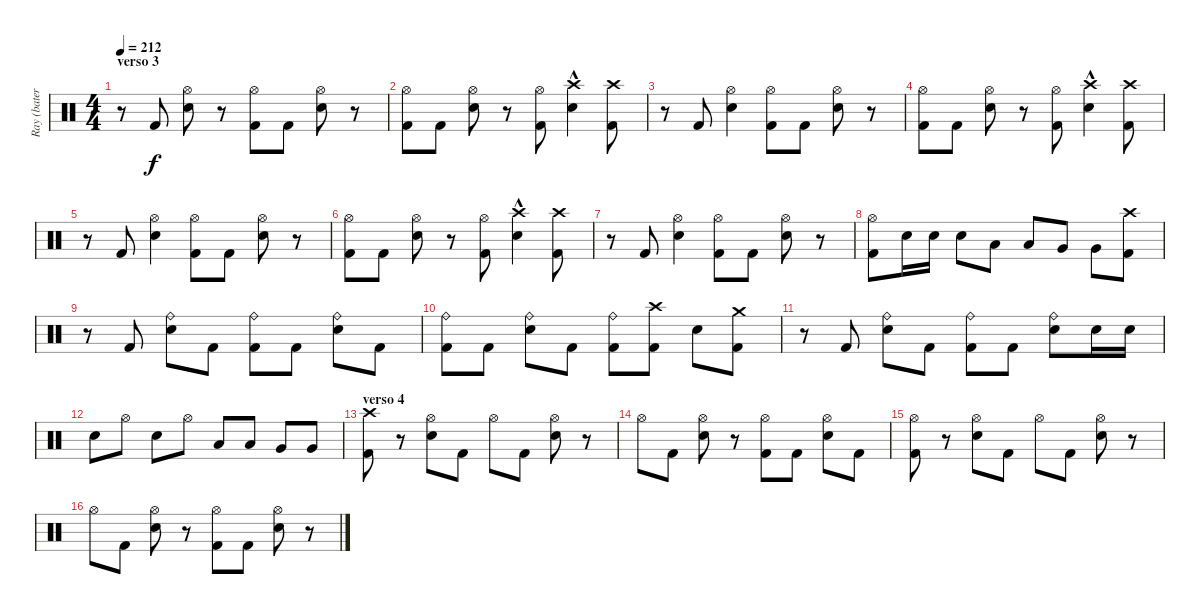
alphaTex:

\track ("Ray (batería)" "Ray (bater") {instrument percussion}
\staff {score}
\articulation defaults
\ts (4 4)
\section ("" "verso 3")
\tempo 212
\clef neutral
\ks c
r.8{dy f} "Kick (hit) 2".8 ("Hi-Hat (open)" "Snare (hit) 2").8 r.8 ("Hi-Hat (open)" "Kick (hit) 2").8 "Kick (hit) 2".8 ("Hi-Hat (open)" "Snare (hit) 2").8 r.8 |
("Hi-Hat (open)" "Kick (hit) 2").8 "Kick (hit) 2".8 ("Hi-Hat (open)" "Snare (hit) 2").8 r.8 ("Hi-Hat (open)" "Kick (hit) 2").8 ("Crash high (hit)" "Snare (hit) 2"{hac}).4 ("Crash high (hit)" "Kick (hit) 2").8 |
r.8 "Kick (hit) 2".8 ("Hi-Hat (open)" "Snare (hit) 2").4 ("Hi-Hat (open)" "Kick (hit) 2").8 "Kick (hit) 2".8 ("Hi-Hat (open)" "Snare (hit) 2").8 r.8 |
("Hi-Hat (open)" "Kick (hit) 2").8 "Kick (hit) 2".8 ("Hi-Hat (open)" "Snare (hit) 2").8 r.8 ("Hi-Hat (open)" "Kick (hit) 2").8 ("Crash high (hit)" "Snare (hit) 2"{hac}).4 ("Crash high (hit)" "Kick (hit) 2").8 |
r.8 "Kick (hit) 2".8 ("Hi-Hat (open)" "Snare (hit) 2").4 ("Hi-Hat (open)" "Kick (hit) 2").8 "Kick (hit) 2".8 ("Hi-Hat (open)" "Snare (hit) 2").8 r.8 |
("Hi-Hat (open)" "Kick (hit) 2").8 "Kick (hit) 2".8 ("Hi-Hat (open)" "Snare (hit) 2").8 r.8 ("Hi-Hat (open)" "Kick (hit) 2").8 ("Crash high (hit)" "Snare (hit) 2"{hac}).4 ("Crash high (hit)" "Kick (hit) 2").8 |
r.8 "Kick (hit) 2".8 ("Hi-Hat (open)" "Snare (hit) 2").4 ("Hi-Hat (open)" "Kick (hit) 2").8 "Kick (hit) 2".8 ("Hi-Hat (open)" "Snare (hit) 2").8 r.8 |
("Hi-Hat (open)" "Kick (hit) 2").8 "Snare (hit) 2".16 "Snare (hit) 2".16 "Snare (hit) 2".8 "Low Tom (hit)".8 "Low Tom (hit)".8 "Very Low Tom (hit)".8 "Very Low Tom (hit)".8 ("Crash high (hit)" "Kick (hit) 2").8 |
r.8 "Kick (hit) 2".8 ("Ride (bell)" "Snare (hit) 2").8 "Kick (hit) 2".8 ("Ride (bell)" "Kick (hit) 2").8 "Kick (hit) 2".8 ("Ride (bell)" "Snare (hit) 2").8 "Kick (hit) 2".8 |
("Ride (bell)" "Kick (hit) 2").8 "Kick (hit) 2".8 ("Ride (bell)" "Snare (hit) 2").8 "Kick (hit) 2".8 ("Ride (bell)" "Kick (hit) 2").8 ("Crash high (hit)" "Kick (hit) 2").8 "Snare (hit) 2".8 ("Crash medium (hit)" "Kick (hit) 2").8 |
r.8 "Kick (hit) 2".8 ("Ride (bell)" "Snare (hit) 2").8 "Kick (hit) 2".8 ("Ride (bell)" "Kick (hit) 2").8 "Kick (hit) 2".8 ("Ride (bell)" "Snare (hit) 2").8 "Snare (hit) 2".16 "Snare (hit) 2".16 |
"Snare (hit) 2".8 "Hi-Hat (open)".8 "Snare (hit) 2".8 "Hi-Hat (open)".8 "Low Tom (hit)".8 "Low Tom (hit)".8 "Very Low Tom (hit)".8 "Very Low Tom (hit)".8 |
\section ("" "verso 4")
("Crash high (hit)" "Kick (hit) 2").8 r.8 ("Hi-Hat (open)" "Snare (hit) 2").8 "Kick (hit) 2".8 "Hi-Hat (open)".8 "Kick (hit) 2".8 ("Hi-Hat (open)" "Snare (hit) 2").8 r.8 |
"Hi-Hat (open)".8 "Kick (hit) 2".8 ("Hi-Hat (open)" "Snare (hit) 2").8 r.8 ("Hi-Hat (open)" "Kick (hit) 2").8 "Kick (hit) 2".8 ("Hi-Hat (open)" "Snare (hit) 2").8 "Kick (hit) 2".8 |
("Hi-Hat (open)" "Kick (hit) 2").8 r.8 ("Hi-Hat (open)" "Snare (hit) 2").8 "Kick (hit) 2".8 "Hi-Hat (open)".8 "Kick (hit) 2".8 ("Hi-Hat (open)" "Snare (hit) 2").8 r.8 |
"Hi-Hat (open)".8 "Kick (hit) 2".8 ("Hi-Hat (open)" "Snare (hit) 2").8 r.8 ("Hi-Hat (open)" "Kick (hit) 2").8 "Kick (hit) 2".8 ("Hi-Hat (open)" "Snare (hit) 2").8 r.8
